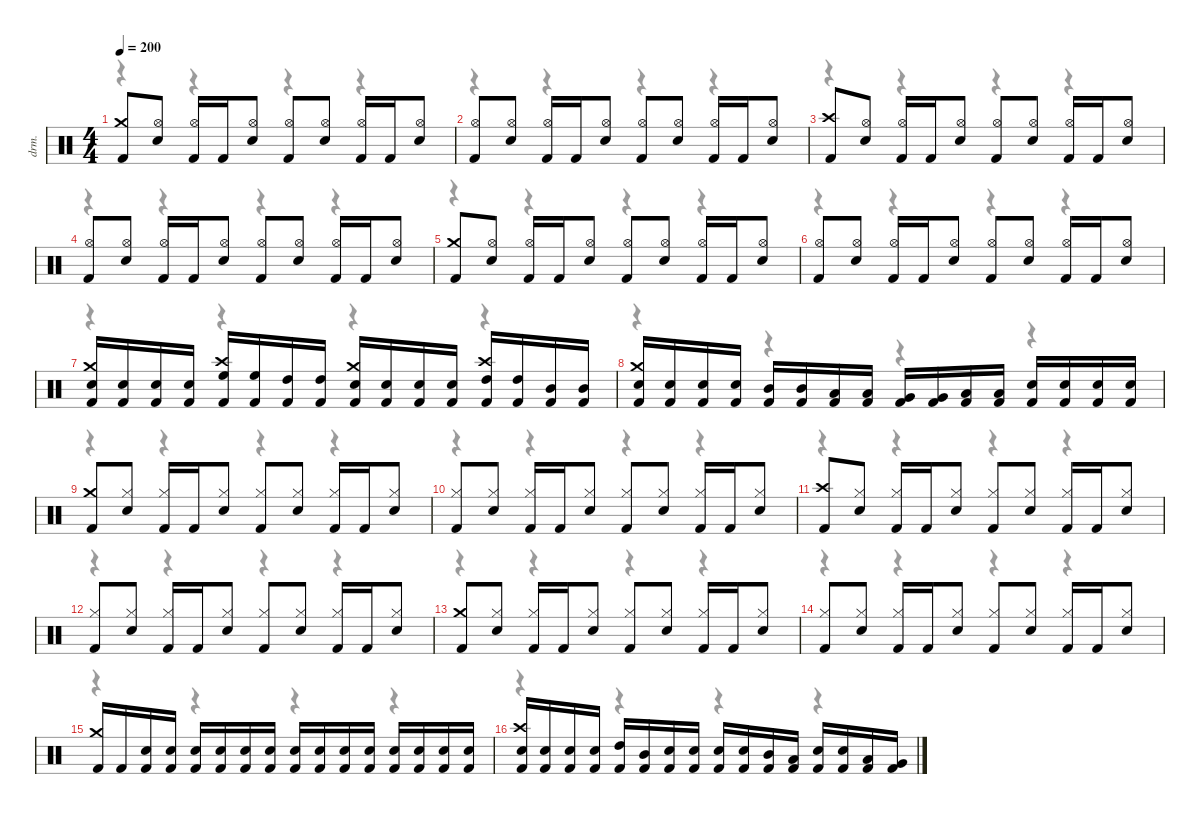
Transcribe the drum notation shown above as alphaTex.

\hideDynamics
\bracketExtendMode nobrackets
\otherSystemsTrackNameOrientation horizontal
\track ("Drums" "drm.") {instrument percussion}
\staff {score}
\articulation defaults
\voice
\ts (4 4)
\section ("" "")
\scale
0.973373
\tempo 200
\accidentals auto
\clef neutral
\ottava regular
\simile none
\ks c
("Kick (hit) 2" "Crash medium (hit)").8{dy f} ("Snare (hit) 2" "Hi-Hat (open)").8 ("Kick (hit) 2" "Hi-Hat (open)").16 "Kick (hit) 2".16 ("Snare (hit) 2" "Hi-Hat (open)").8 ("Kick (hit) 2" "Hi-Hat (open)").8 ("Snare (hit) 2" "Hi-Hat (open)").8 ("Kick (hit) 2" "Hi-Hat (open)").16 "Kick (hit) 2".16 ("Snare (hit) 2" "Hi-Hat (open)").8 |
\scale
0.973373 ("Kick (hit) 2" "Hi-Hat (open)").8 ("Snare (hit) 2" "Hi-Hat (open)").8 ("Kick (hit) 2" "Hi-Hat (open)").16 "Kick (hit) 2".16 ("Snare (hit) 2" "Hi-Hat (open)").8 ("Kick (hit) 2" "Hi-Hat (open)").8 ("Snare (hit) 2" "Hi-Hat (open)").8 ("Kick (hit) 2" "Hi-Hat (open)").16 "Kick (hit) 2".16 ("Snare (hit) 2" "Hi-Hat (open)").8 |
\scale
1.05948 ("Kick (hit) 2" "Crash high (hit)").8 ("Snare (hit) 2" "Hi-Hat (open)").8 ("Kick (hit) 2" "Hi-Hat (open)").16 "Kick (hit) 2".16 ("Snare (hit) 2" "Hi-Hat (open)").8 ("Kick (hit) 2" "Hi-Hat (open)").8 ("Snare (hit) 2" "Hi-Hat (open)").8 ("Kick (hit) 2" "Hi-Hat (open)").16 "Kick (hit) 2".16 ("Snare (hit) 2" "Hi-Hat (open)").8 |
\scale
0.978277 ("Kick (hit) 2" "Hi-Hat (open)").8 ("Snare (hit) 2" "Hi-Hat (open)").8 ("Kick (hit) 2" "Hi-Hat (open)").16 "Kick (hit) 2".16 ("Snare (hit) 2" "Hi-Hat (open)").8 ("Kick (hit) 2" "Hi-Hat (open)").8 ("Snare (hit) 2" "Hi-Hat (open)").8 ("Kick (hit) 2" "Hi-Hat (open)").16 "Kick (hit) 2".16 ("Snare (hit) 2" "Hi-Hat (open)").8 |
\scale
1.00034 ("Kick (hit) 2" "Crash medium (hit)").8 ("Snare (hit) 2" "Hi-Hat (open)").8 ("Kick (hit) 2" "Hi-Hat (open)").16 "Kick (hit) 2".16 ("Snare (hit) 2" "Hi-Hat (open)").8 ("Kick (hit) 2" "Hi-Hat (open)").8 ("Snare (hit) 2" "Hi-Hat (open)").8 ("Kick (hit) 2" "Hi-Hat (open)").16 "Kick (hit) 2".16 ("Snare (hit) 2" "Hi-Hat (open)").8 |
\scale
1.00034 ("Kick (hit) 2" "Hi-Hat (open)").8 ("Snare (hit) 2" "Hi-Hat (open)").8 ("Kick (hit) 2" "Hi-Hat (open)").16 "Kick (hit) 2".16 ("Snare (hit) 2" "Hi-Hat (open)").8 ("Kick (hit) 2" "Hi-Hat (open)").8 ("Snare (hit) 2" "Hi-Hat (open)").8 ("Kick (hit) 2" "Hi-Hat (open)").16 "Kick (hit) 2".16 ("Snare (hit) 2" "Hi-Hat (open)").8 |
\scale
0.970921 ("Kick (hit) 2" "Snare (hit) 2" "Crash medium (hit)").16 ("Kick (hit) 2" "Snare (hit) 2").16 ("Kick (hit) 2" "Snare (hit) 2").16 ("Kick (hit) 2" "Snare (hit) 2").16 ("Kick (hit) 2" "High Floor Tom (hit)" "Crash high (hit)").16 ("Kick (hit) 2" "High Floor Tom (hit)").16 ("Kick (hit) 2" "High Tom (hit)").16 ("Kick (hit) 2" "High Tom (hit)").16 ("Kick (hit) 2" "Snare (hit) 2" "Crash medium (hit)").16 ("Kick (hit) 2" "Snare (hit) 2").16 ("Kick (hit) 2" "Snare (hit) 2").16 ("Kick (hit) 2" "Snare (hit) 2").16 ("Kick (hit) 2" "High Tom (hit)" "Crash high (hit)").16 ("Kick (hit) 2" "High Tom (hit)").16 ("Kick (hit) 2" "Mid Tom (hit)").16 ("Kick (hit) 2" "Mid Tom (hit)").16 |
\scale
0.990634 ("Kick (hit) 2" "Snare (hit) 2" "Crash medium (hit)").16 ("Kick (hit) 2" "Snare (hit) 2").16 ("Kick (hit) 2" "Snare (hit) 2").16 ("Kick (hit) 2" "Snare (hit) 2").16 ("Kick (hit) 2" "Mid Tom (hit)").16 ("Kick (hit) 2" "Mid Tom (hit)").16 ("Kick (hit) 2" "Low Tom (hit)").16 ("Kick (hit) 2" "Low Tom (hit)").16 ("Kick (hit) 2" "Very Low Tom (hit)").16 ("Kick (hit) 2" "Very Low Tom (hit)").16 ("Kick (hit) 2" "Low Floor Tom (hit)").16 ("Kick (hit) 2" "Low Floor Tom (hit)").16 ("Kick (hit) 2" "Snare (hit) 2").16 ("Kick (hit) 2" "Snare (hit) 2").16 ("Kick (hit) 2" "Snare (hit) 2").16 ("Kick (hit) 2" "Snare (hit) 2").16 |
\section ("" "")
\scale
1.06461 ("Kick (hit) 2" "Crash medium (hit)").8 ("Snare (hit) 2" "Hi-Hat (closed)").8 ("Kick (hit) 2" "Hi-Hat (closed)").16 "Kick (hit) 2".16 ("Snare (hit) 2" "Hi-Hat (closed)").8 ("Kick (hit) 2" "Hi-Hat (closed)").8 ("Snare (hit) 2" "Hi-Hat (closed)").8 ("Kick (hit) 2" "Hi-Hat (closed)").16 "Kick (hit) 2".16 ("Snare (hit) 2" "Hi-Hat (closed)").8 |
\scale
0.979723 ("Kick (hit) 2" "Hi-Hat (closed)").8 ("Snare (hit) 2" "Hi-Hat (closed)").8 ("Kick (hit) 2" "Hi-Hat (closed)").16 "Kick (hit) 2".16 ("Snare (hit) 2" "Hi-Hat (closed)").8 ("Kick (hit) 2" "Hi-Hat (closed)").8 ("Snare (hit) 2" "Hi-Hat (closed)").8 ("Kick (hit) 2" "Hi-Hat (closed)").16 "Kick (hit) 2".16 ("Snare (hit) 2" "Hi-Hat (closed)").8 |
\scale
0.972368 ("Kick (hit) 2" "Crash high (hit)").8 ("Snare (hit) 2" "Hi-Hat (closed)").8 ("Kick (hit) 2" "Hi-Hat (closed)").16 "Kick (hit) 2".16 ("Snare (hit) 2" "Hi-Hat (closed)").8 ("Kick (hit) 2" "Hi-Hat (closed)").8 ("Snare (hit) 2" "Hi-Hat (closed)").8 ("Kick (hit) 2" "Hi-Hat (closed)").16 "Kick (hit) 2".16 ("Snare (hit) 2" "Hi-Hat (closed)").8 |
\scale
0.979723 ("Kick (hit) 2" "Hi-Hat (closed)").8 ("Snare (hit) 2" "Hi-Hat (closed)").8 ("Kick (hit) 2" "Hi-Hat (closed)").16 "Kick (hit) 2".16 ("Snare (hit) 2" "Hi-Hat (closed)").8 ("Kick (hit) 2" "Hi-Hat (closed)").8 ("Snare (hit) 2" "Hi-Hat (closed)").8 ("Kick (hit) 2" "Hi-Hat (closed)").16 "Kick (hit) 2".16 ("Snare (hit) 2" "Hi-Hat (closed)").8 |
\scale
1.00179 ("Kick (hit) 2" "Crash medium (hit)").8 ("Snare (hit) 2" "Hi-Hat (closed)").8 ("Kick (hit) 2" "Hi-Hat (closed)").16 "Kick (hit) 2".16 ("Snare (hit) 2" "Hi-Hat (closed)").8 ("Kick (hit) 2" "Hi-Hat (closed)").8 ("Snare (hit) 2" "Hi-Hat (closed)").8 ("Kick (hit) 2" "Hi-Hat (closed)").16 "Kick (hit) 2".16 ("Snare (hit) 2" "Hi-Hat (closed)").8 |
\scale
1.00179 ("Kick (hit) 2" "Hi-Hat (closed)").8 ("Snare (hit) 2" "Hi-Hat (closed)").8 ("Kick (hit) 2" "Hi-Hat (closed)").16 "Kick (hit) 2".16 ("Snare (hit) 2" "Hi-Hat (closed)").8 ("Kick (hit) 2" "Hi-Hat (closed)").8 ("Snare (hit) 2" "Hi-Hat (closed)").8 ("Kick (hit) 2" "Hi-Hat (closed)").16 "Kick (hit) 2".16 ("Snare (hit) 2" "Hi-Hat (closed)").8 |
\scale
1.08042 ("Kick (hit) 2" "Crash medium (hit)").16 "Kick (hit) 2".16 ("Kick (hit) 2" "Snare (hit) 2").16 ("Kick (hit) 2" "Snare (hit) 2").16 ("Kick (hit) 2" "Snare (hit) 2").16 ("Kick (hit) 2" "Snare (hit) 2").16 ("Kick (hit) 2" "Snare (hit) 2").16 ("Kick (hit) 2" "Snare (hit) 2").16 ("Kick (hit) 2" "Snare (hit) 2").16 ("Kick (hit) 2" "Snare (hit) 2").16 ("Kick (hit) 2" "Snare (hit) 2").16 ("Kick (hit) 2" "Snare (hit) 2").16 ("Kick (hit) 2" "Snare (hit) 2").16 ("Kick (hit) 2" "Snare (hit) 2").16 ("Kick (hit) 2" "Snare (hit) 2").16 ("Kick (hit) 2" "Snare (hit) 2").16 |
\scale
0.988623 ("Kick (hit) 2" "Snare (hit) 2" "Crash high (hit)").16 ("Kick (hit) 2" "Snare (hit) 2").16 ("Kick (hit) 2" "Snare (hit) 2").16 ("Kick (hit) 2" "Snare (hit) 2").16 ("Kick (hit) 2" "High Tom (hit)").16 ("Kick (hit) 2" "Mid Tom (hit)").16 ("Kick (hit) 2" "Snare (hit) 2").16 ("Kick (hit) 2" "Snare (hit) 2").16 ("Kick (hit) 2" "Snare (hit) 2").16 ("Kick (hit) 2" "Snare (hit) 2").16 ("Kick (hit) 2" "Mid Tom (hit)").16 ("Kick (hit) 2" "Low Tom (hit)").16 ("Kick (hit) 2" "Snare (hit) 2").16 ("Kick (hit) 2" "Snare (hit) 2").16 ("Kick (hit) 2" "Low Tom (hit)").16 ("Kick (hit) 2" "Very Low Tom (hit)").16
\voice
\clef neutral
\ottava regular
\simile none
\ks c
r.4{dy mf} r.4 r.4 r.4 |
r.4 r.4 r.4 r.4 |
r.4 r.4 r.4 r.4 |
r.4 r.4 r.4 r.4 |
r.4 r.4 r.4 r.4 |
r.4 r.4 r.4 r.4 |
r.4 r.4 r.4 r.4 |
r.4 r.4 r.4 r.4 |
r.4 r.4 r.4 r.4 |
r.4 r.4 r.4 r.4 |
r.4 r.4 r.4 r.4 |
r.4 r.4 r.4 r.4 |
r.4 r.4 r.4 r.4 |
r.4 r.4 r.4 r.4 |
r.4 r.4 r.4 r.4 |
r.4 r.4 r.4 r.4
